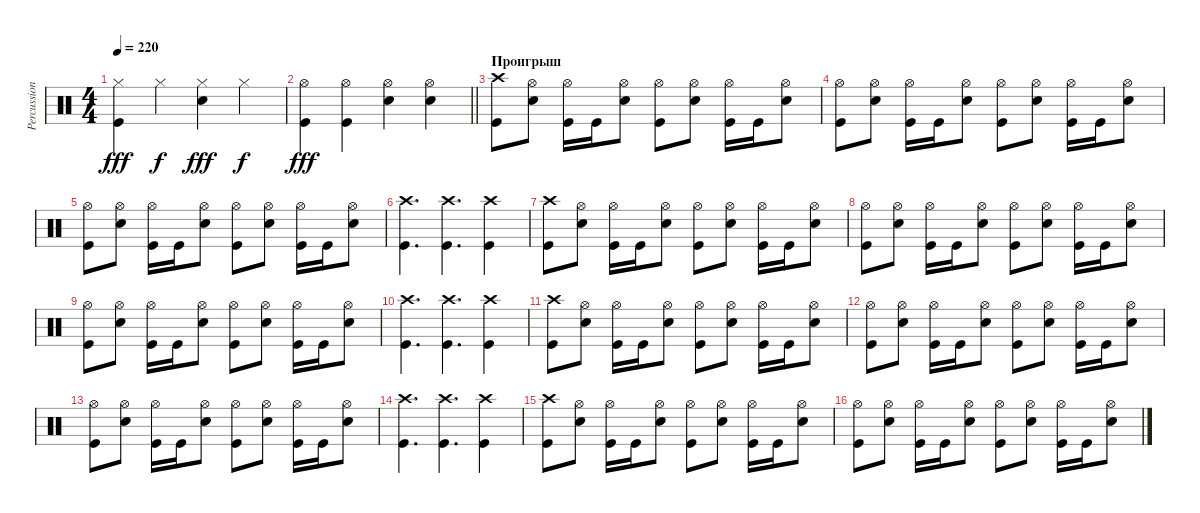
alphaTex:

\track ("Percussion" "Percussion") {instrument percussion}
\staff {score}
\articulation defaults
\ts (4 4)
\tempo 220
\clef neutral
\ks c
("Kick (hit)" "Hi-Hat (closed)").4{dy fff} "Hi-Hat (closed)".4{dy f} ("Snare (hit) 2" "Hi-Hat (closed)").4{dy fff} "Hi-Hat (closed)".4{dy f} |
\barLineRight lightlight
("Kick (hit)" "Hi-Hat (open)").4{dy fff} ("Kick (hit)" "Hi-Hat (open)").4 ("Snare (hit) 2" "Hi-Hat (open)").4 ("Snare (hit) 2" "Hi-Hat (open)").4 |
\section ("" "Проигрыш")
("Crash high (hit)" "Kick (hit)").8 ("Hi-Hat (open)" "Snare (hit) 2").8 ("Hi-Hat (open)" "Kick (hit)").16 "Kick (hit)".16 ("Hi-Hat (open)" "Snare (hit) 2").8 ("Hi-Hat (open)" "Kick (hit)").8 ("Hi-Hat (open)" "Snare (hit) 2").8 ("Hi-Hat (open)" "Kick (hit)").16 "Kick (hit)".16 ("Hi-Hat (open)" "Snare (hit) 2").8 |
("Hi-Hat (open)" "Kick (hit)").8 ("Hi-Hat (open)" "Snare (hit) 2").8 ("Hi-Hat (open)" "Kick (hit)").16 "Kick (hit)".16 ("Hi-Hat (open)" "Snare (hit) 2").8 ("Hi-Hat (open)" "Kick (hit)").8 ("Hi-Hat (open)" "Snare (hit) 2").8 ("Hi-Hat (open)" "Kick (hit)").16 "Kick (hit)".16 ("Hi-Hat (open)" "Snare (hit) 2").8 |
("Hi-Hat (open)" "Kick (hit)").8 ("Hi-Hat (open)" "Snare (hit) 2").8 ("Hi-Hat (open)" "Kick (hit)").16 "Kick (hit)".16 ("Hi-Hat (open)" "Snare (hit) 2").8 ("Hi-Hat (open)" "Kick (hit)").8 ("Hi-Hat (open)" "Snare (hit) 2").8 ("Hi-Hat (open)" "Kick (hit)").16 "Kick (hit)".16 ("Hi-Hat (open)" "Snare (hit) 2").8 |
("Crash high (hit)" "Kick (hit)").4{d} ("Crash high (hit)" "Kick (hit)").4{d} ("Crash high (hit)" "Kick (hit)").4 |
("Crash high (hit)" "Kick (hit)").8 ("Hi-Hat (open)" "Snare (hit) 2").8 ("Hi-Hat (open)" "Kick (hit)").16 "Kick (hit)".16 ("Hi-Hat (open)" "Snare (hit) 2").8 ("Hi-Hat (open)" "Kick (hit)").8 ("Hi-Hat (open)" "Snare (hit) 2").8 ("Hi-Hat (open)" "Kick (hit)").16 "Kick (hit)".16 ("Hi-Hat (open)" "Snare (hit) 2").8 |
("Hi-Hat (open)" "Kick (hit)").8 ("Hi-Hat (open)" "Snare (hit) 2").8 ("Hi-Hat (open)" "Kick (hit)").16 "Kick (hit)".16 ("Hi-Hat (open)" "Snare (hit) 2").8 ("Hi-Hat (open)" "Kick (hit)").8 ("Hi-Hat (open)" "Snare (hit) 2").8 ("Hi-Hat (open)" "Kick (hit)").16 "Kick (hit)".16 ("Hi-Hat (open)" "Snare (hit) 2").8 |
("Hi-Hat (open)" "Kick (hit)").8 ("Hi-Hat (open)" "Snare (hit) 2").8 ("Hi-Hat (open)" "Kick (hit)").16 "Kick (hit)".16 ("Hi-Hat (open)" "Snare (hit) 2").8 ("Hi-Hat (open)" "Kick (hit)").8 ("Hi-Hat (open)" "Snare (hit) 2").8 ("Hi-Hat (open)" "Kick (hit)").16 "Kick (hit)".16 ("Hi-Hat (open)" "Snare (hit) 2").8 |
("Crash high (hit)" "Kick (hit)").4{d} ("Crash high (hit)" "Kick (hit)").4{d} ("Crash high (hit)" "Kick (hit)").4 |
("Crash high (hit)" "Kick (hit)").8 ("Hi-Hat (open)" "Snare (hit) 2").8 ("Hi-Hat (open)" "Kick (hit)").16 "Kick (hit)".16 ("Hi-Hat (open)" "Snare (hit) 2").8 ("Hi-Hat (open)" "Kick (hit)").8 ("Hi-Hat (open)" "Snare (hit) 2").8 ("Hi-Hat (open)" "Kick (hit)").16 "Kick (hit)".16 ("Hi-Hat (open)" "Snare (hit) 2").8 |
("Hi-Hat (open)" "Kick (hit)").8 ("Hi-Hat (open)" "Snare (hit) 2").8 ("Hi-Hat (open)" "Kick (hit)").16 "Kick (hit)".16 ("Hi-Hat (open)" "Snare (hit) 2").8 ("Hi-Hat (open)" "Kick (hit)").8 ("Hi-Hat (open)" "Snare (hit) 2").8 ("Hi-Hat (open)" "Kick (hit)").16 "Kick (hit)".16 ("Hi-Hat (open)" "Snare (hit) 2").8 |
("Hi-Hat (open)" "Kick (hit)").8 ("Hi-Hat (open)" "Snare (hit) 2").8 ("Hi-Hat (open)" "Kick (hit)").16 "Kick (hit)".16 ("Hi-Hat (open)" "Snare (hit) 2").8 ("Hi-Hat (open)" "Kick (hit)").8 ("Hi-Hat (open)" "Snare (hit) 2").8 ("Hi-Hat (open)" "Kick (hit)").16 "Kick (hit)".16 ("Hi-Hat (open)" "Snare (hit) 2").8 |
("Crash high (hit)" "Kick (hit)").4{d} ("Crash high (hit)" "Kick (hit)").4{d} ("Crash high (hit)" "Kick (hit)").4 |
("Crash high (hit)" "Kick (hit)").8 ("Hi-Hat (open)" "Snare (hit) 2").8 ("Hi-Hat (open)" "Kick (hit)").16 "Kick (hit)".16 ("Hi-Hat (open)" "Snare (hit) 2").8 ("Hi-Hat (open)" "Kick (hit)").8 ("Hi-Hat (open)" "Snare (hit) 2").8 ("Hi-Hat (open)" "Kick (hit)").16 "Kick (hit)".16 ("Hi-Hat (open)" "Snare (hit) 2").8 |
("Hi-Hat (open)" "Kick (hit)").8 ("Hi-Hat (open)" "Snare (hit) 2").8 ("Hi-Hat (open)" "Kick (hit)").16 "Kick (hit)".16 ("Hi-Hat (open)" "Snare (hit) 2").8 ("Hi-Hat (open)" "Kick (hit)").8 ("Hi-Hat (open)" "Snare (hit) 2").8 ("Hi-Hat (open)" "Kick (hit)").16 "Kick (hit)".16 ("Hi-Hat (open)" "Snare (hit) 2").8
